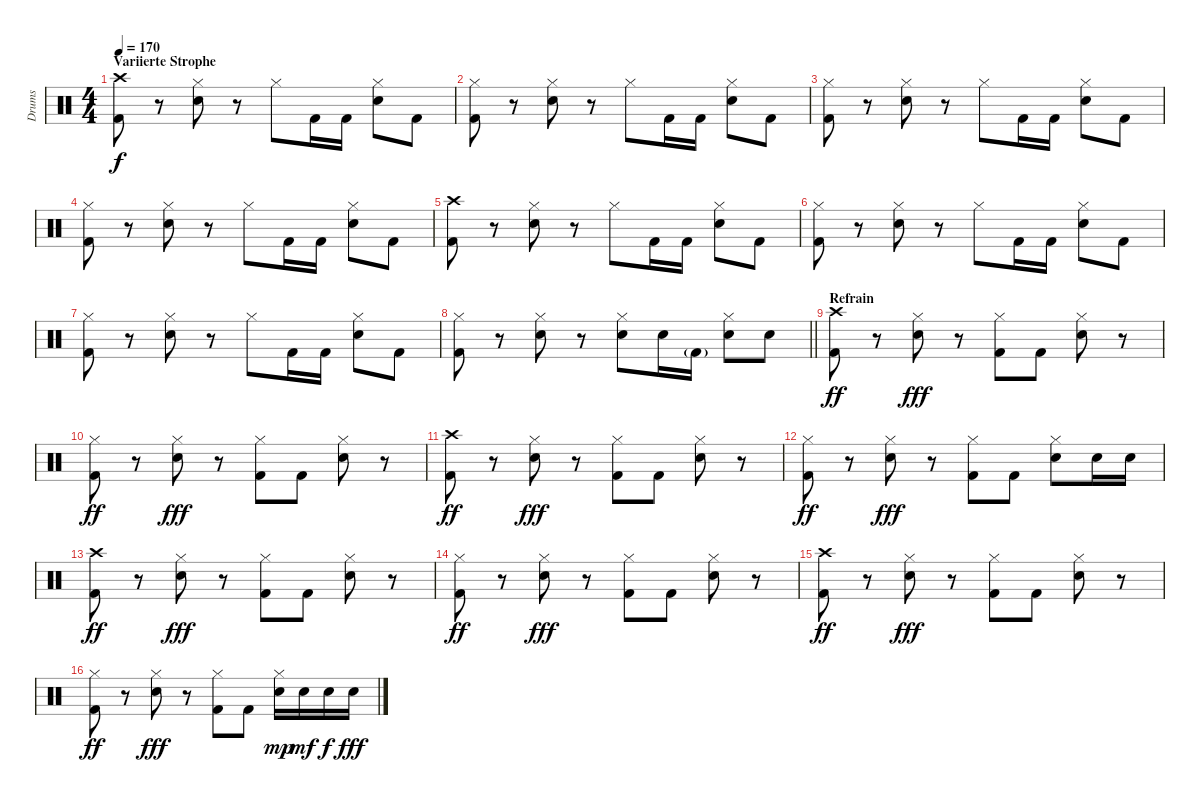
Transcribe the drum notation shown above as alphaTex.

\track ("Drums" "Drums") {instrument percussion}
\staff {score}
\articulation defaults
\ts (4 4)
\section ("" "Variierte Strophe")
\tempo 170
\clef neutral
\ks c
("Crash high (hit)" "Kick (hit) 2").8{dy f} r.8 ("Hi-Hat (closed)" "Snare (hit) 2").8 r.8 "Hi-Hat (closed)".8 "Kick (hit) 2".16 "Kick (hit) 2".16 ("Hi-Hat (closed)" "Snare (hit) 2").8 "Kick (hit) 2".8 |
("Hi-Hat (closed)" "Kick (hit) 2").8 r.8 ("Hi-Hat (closed)" "Snare (hit) 2").8 r.8 "Hi-Hat (closed)".8 "Kick (hit) 2".16 "Kick (hit) 2".16 ("Hi-Hat (closed)" "Snare (hit) 2").8 "Kick (hit) 2".8 |
("Hi-Hat (closed)" "Kick (hit) 2").8 r.8 ("Hi-Hat (closed)" "Snare (hit) 2").8 r.8 "Hi-Hat (closed)".8 "Kick (hit) 2".16 "Kick (hit) 2".16 ("Hi-Hat (closed)" "Snare (hit) 2").8 "Kick (hit) 2".8 |
("Hi-Hat (closed)" "Kick (hit) 2").8 r.8 ("Hi-Hat (closed)" "Snare (hit) 2").8 r.8 "Hi-Hat (closed)".8 "Kick (hit) 2".16 "Kick (hit) 2".16 ("Hi-Hat (closed)" "Snare (hit) 2").8 "Kick (hit) 2".8 |
("Crash high (hit)" "Kick (hit) 2").8 r.8 ("Hi-Hat (closed)" "Snare (hit) 2").8 r.8 "Hi-Hat (closed)".8 "Kick (hit) 2".16 "Kick (hit) 2".16 ("Hi-Hat (closed)" "Snare (hit) 2").8 "Kick (hit) 2".8 |
("Hi-Hat (closed)" "Kick (hit) 2").8 r.8 ("Hi-Hat (closed)" "Snare (hit) 2").8 r.8 "Hi-Hat (closed)".8 "Kick (hit) 2".16 "Kick (hit) 2".16 ("Hi-Hat (closed)" "Snare (hit) 2").8 "Kick (hit) 2".8 |
("Hi-Hat (closed)" "Kick (hit) 2").8 r.8 ("Hi-Hat (closed)" "Snare (hit) 2").8 r.8 "Hi-Hat (closed)".8 "Kick (hit) 2".16 "Kick (hit) 2".16 ("Hi-Hat (closed)" "Snare (hit) 2").8 "Kick (hit) 2".8 |
\barLineRight lightlight
("Hi-Hat (closed)" "Kick (hit) 2").8 r.8 ("Hi-Hat (closed)" "Snare (hit) 2").8 r.8 ("Hi-Hat (closed)" "Snare (hit) 2").8 "Snare (hit) 2".16 "Kick (hit) 2"{g}.16 ("Hi-Hat (closed)" "Snare (hit) 2").8 "Snare (hit) 2".8 |
\section ("" "Refrain")
("Crash high (hit)" "Kick (hit) 2").8{dy ff} r.8 ("Hi-Hat (closed)" "Snare (hit) 2").8{dy fff} r.8 ("Hi-Hat (closed)" "Kick (hit) 2").8 "Kick (hit) 2".8 ("Hi-Hat (closed)" "Snare (hit) 2").8 r.8 |
("Hi-Hat (closed)" "Kick (hit) 2").8{dy ff} r.8 ("Hi-Hat (closed)" "Snare (hit) 2").8{dy fff} r.8 ("Hi-Hat (closed)" "Kick (hit) 2").8 "Kick (hit) 2".8 ("Hi-Hat (closed)" "Snare (hit) 2").8 r.8 |
("Crash high (hit)" "Kick (hit) 2").8{dy ff} r.8 ("Hi-Hat (closed)" "Snare (hit) 2").8{dy fff} r.8 ("Hi-Hat (closed)" "Kick (hit) 2").8 "Kick (hit) 2".8 ("Hi-Hat (closed)" "Snare (hit) 2").8 r.8 |
("Hi-Hat (closed)" "Kick (hit) 2").8{dy ff} r.8 ("Hi-Hat (closed)" "Snare (hit) 2").8{dy fff} r.8 ("Hi-Hat (closed)" "Kick (hit) 2").8 "Kick (hit) 2".8 ("Hi-Hat (closed)" "Snare (hit) 2").8 "Snare (hit) 2".16 "Snare (hit) 2".16 |
("Crash high (hit)" "Kick (hit) 2").8{dy ff} r.8 ("Hi-Hat (closed)" "Snare (hit) 2").8{dy fff} r.8 ("Hi-Hat (closed)" "Kick (hit) 2").8 "Kick (hit) 2".8 ("Hi-Hat (closed)" "Snare (hit) 2").8 r.8 |
("Hi-Hat (closed)" "Kick (hit) 2").8{dy ff} r.8 ("Hi-Hat (closed)" "Snare (hit) 2").8{dy fff} r.8 ("Hi-Hat (closed)" "Kick (hit) 2").8 "Kick (hit) 2".8 ("Hi-Hat (closed)" "Snare (hit) 2").8 r.8 |
("Crash high (hit)" "Kick (hit) 2").8{dy ff} r.8 ("Hi-Hat (closed)" "Snare (hit) 2").8{dy fff} r.8 ("Hi-Hat (closed)" "Kick (hit) 2").8 "Kick (hit) 2".8 ("Hi-Hat (closed)" "Snare (hit) 2").8 r.8 |
("Hi-Hat (closed)" "Kick (hit) 2").8{dy ff} r.8 ("Hi-Hat (closed)" "Snare (hit) 2").8{dy fff} r.8 ("Hi-Hat (closed)" "Kick (hit) 2").8 "Kick (hit) 2".8 ("Hi-Hat (closed)" "Snare (hit) 2").16{dy mp} "Snare (hit) 2".16{dy mf} "Snare (hit) 2".16{dy f} "Snare (hit) 2".16{dy fff}
